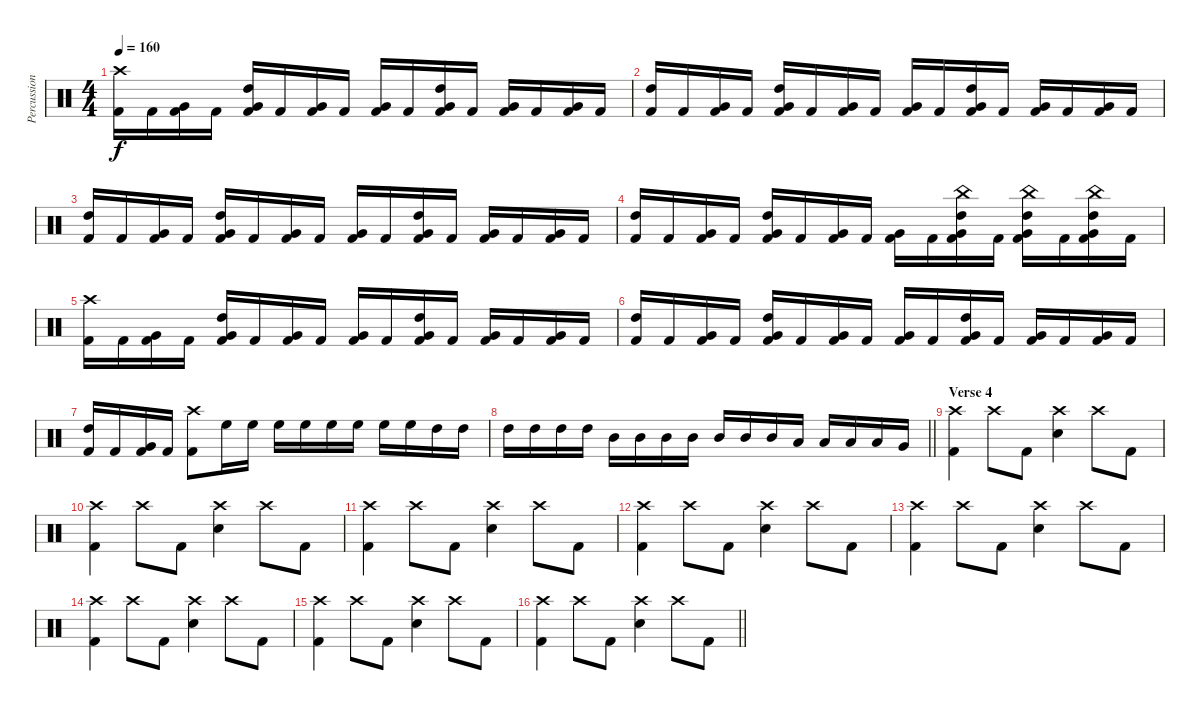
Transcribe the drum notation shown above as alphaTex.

\track ("Percussion" "Percussion") {instrument percussion}
\staff {score}
\articulation defaults
\ts (4 4)
\tempo 160
\clef neutral
\ks c
("Kick (hit) 2" "Crash high (hit)").16{dy f} "Kick (hit) 2".16 ("Kick (hit) 2" "Very Low Tom (hit)").16 "Kick (hit) 2".16 ("Kick (hit) 2" "Very Low Tom (hit)" "High Tom (hit)").16 "Kick (hit) 2".16 ("Kick (hit) 2" "Very Low Tom (hit)").16 "Kick (hit) 2".16 ("Kick (hit) 2" "Very Low Tom (hit)").16 "Kick (hit) 2".16 ("Kick (hit) 2" "Very Low Tom (hit)" "High Tom (hit)").16 "Kick (hit) 2".16 ("Kick (hit) 2" "Very Low Tom (hit)").16 "Kick (hit) 2".16 ("Kick (hit) 2" "Very Low Tom (hit)").16 "Kick (hit) 2".16 |
("Kick (hit) 2" "High Tom (hit)").16 "Kick (hit) 2".16 ("Kick (hit) 2" "Very Low Tom (hit)").16 "Kick (hit) 2".16 ("Kick (hit) 2" "Very Low Tom (hit)" "High Tom (hit)").16 "Kick (hit) 2".16 ("Kick (hit) 2" "Very Low Tom (hit)").16 "Kick (hit) 2".16 ("Kick (hit) 2" "Very Low Tom (hit)").16 "Kick (hit) 2".16 ("Kick (hit) 2" "Very Low Tom (hit)" "High Tom (hit)").16 "Kick (hit) 2".16 ("Kick (hit) 2" "Very Low Tom (hit)").16 "Kick (hit) 2".16 ("Kick (hit) 2" "Very Low Tom (hit)").16 "Kick (hit) 2".16 |
("Kick (hit) 2" "High Tom (hit)").16 "Kick (hit) 2".16 ("Kick (hit) 2" "Very Low Tom (hit)").16 "Kick (hit) 2".16 ("Kick (hit) 2" "Very Low Tom (hit)" "High Tom (hit)").16 "Kick (hit) 2".16 ("Kick (hit) 2" "Very Low Tom (hit)").16 "Kick (hit) 2".16 ("Kick (hit) 2" "Very Low Tom (hit)").16 "Kick (hit) 2".16 ("Kick (hit) 2" "Very Low Tom (hit)" "High Tom (hit)").16 "Kick (hit) 2".16 ("Kick (hit) 2" "Very Low Tom (hit)").16 "Kick (hit) 2".16 ("Kick (hit) 2" "Very Low Tom (hit)").16 "Kick (hit) 2".16 |
("Kick (hit) 2" "High Tom (hit)").16 "Kick (hit) 2".16 ("Kick (hit) 2" "Very Low Tom (hit)").16 "Kick (hit) 2".16 ("Kick (hit) 2" "Very Low Tom (hit)" "High Tom (hit)").16 "Kick (hit) 2".16 ("Kick (hit) 2" "Very Low Tom (hit)").16 "Kick (hit) 2".16 ("Kick (hit) 2" "Very Low Tom (hit)").16 "Kick (hit) 2".16 ("Kick (hit) 2" "Very Low Tom (hit)" "High Tom (hit)" "China (hit)").16 "Kick (hit) 2".16 ("Kick (hit) 2" "Very Low Tom (hit)" "China (hit)" "High Tom (hit)").16 "Kick (hit) 2".16 ("Kick (hit) 2" "Very Low Tom (hit)" "China (hit)" "High Tom (hit)").16 "Kick (hit) 2".16 |
("Kick (hit) 2" "Crash high (hit)").16 "Kick (hit) 2".16 ("Kick (hit) 2" "Very Low Tom (hit)").16 "Kick (hit) 2".16 ("Kick (hit) 2" "Very Low Tom (hit)" "High Tom (hit)").16 "Kick (hit) 2".16 ("Kick (hit) 2" "Very Low Tom (hit)").16 "Kick (hit) 2".16 ("Kick (hit) 2" "Very Low Tom (hit)").16 "Kick (hit) 2".16 ("Kick (hit) 2" "Very Low Tom (hit)" "High Tom (hit)").16 "Kick (hit) 2".16 ("Kick (hit) 2" "Very Low Tom (hit)").16 "Kick (hit) 2".16 ("Kick (hit) 2" "Very Low Tom (hit)").16 "Kick (hit) 2".16 |
("Kick (hit) 2" "High Tom (hit)").16 "Kick (hit) 2".16 ("Kick (hit) 2" "Very Low Tom (hit)").16 "Kick (hit) 2".16 ("Kick (hit) 2" "Very Low Tom (hit)" "High Tom (hit)").16 "Kick (hit) 2".16 ("Kick (hit) 2" "Very Low Tom (hit)").16 "Kick (hit) 2".16 ("Kick (hit) 2" "Very Low Tom (hit)").16 "Kick (hit) 2".16 ("Kick (hit) 2" "Very Low Tom (hit)" "High Tom (hit)").16 "Kick (hit) 2".16 ("Kick (hit) 2" "Very Low Tom (hit)").16 "Kick (hit) 2".16 ("Kick (hit) 2" "Very Low Tom (hit)").16 "Kick (hit) 2".16 |
("Kick (hit) 2" "High Tom (hit)").16 "Kick (hit) 2".16 ("Kick (hit) 2" "Very Low Tom (hit)").16 "Kick (hit) 2".16 ("Kick (hit) 2" "Crash high (hit)").8 "High Floor Tom (hit)".16 "High Floor Tom (hit)".16 "High Floor Tom (hit)".16 "High Floor Tom (hit)".16 "High Floor Tom (hit)".16 "High Floor Tom (hit)".16 "High Floor Tom (hit)".16 "High Floor Tom (hit)".16 "High Tom (hit)".16 "High Tom (hit)".16 |
\barLineRight lightlight "High Tom (hit)".16 "High Tom (hit)".16 "High Tom (hit)".16 "High Tom (hit)".16 "Mid Tom (hit)".16 "Mid Tom (hit)".16 "Mid Tom (hit)".16 "Mid Tom (hit)".16 "Mid Tom (hit)".16 "Mid Tom (hit)".16 "Mid Tom (hit)".16 "Low Tom (hit)".16 "Low Tom (hit)".16 "Low Tom (hit)".16 "Low Tom (hit)".16 "Very Low Tom (hit)".16
|
\section ("" "Verse 4")
("Kick (hit) 2" "Crash high (hit)").4 "Crash high (hit)".8 "Kick (hit) 2".8 ("Snare (hit) 2" "Crash high (hit)").4 "Crash high (hit)".8 "Kick (hit) 2".8 |
("Kick (hit) 2" "Crash high (hit)").4 "Crash high (hit)".8 "Kick (hit) 2".8 ("Snare (hit) 2" "Crash high (hit)").4 "Crash high (hit)".8 "Kick (hit) 2".8 |
("Kick (hit) 2" "Crash high (hit)").4 "Crash high (hit)".8 "Kick (hit) 2".8 ("Snare (hit) 2" "Crash high (hit)").4 "Crash high (hit)".8 "Kick (hit) 2".8 |
("Kick (hit) 2" "Crash high (hit)").4 "Crash high (hit)".8 "Kick (hit) 2".8 ("Snare (hit) 2" "Crash high (hit)").4 "Crash high (hit)".8 "Kick (hit) 2".8 |
("Kick (hit) 2" "Crash high (hit)").4 "Crash high (hit)".8 "Kick (hit) 2".8 ("Snare (hit) 2" "Crash high (hit)").4 "Crash high (hit)".8 "Kick (hit) 2".8 |
("Kick (hit) 2" "Crash high (hit)").4 "Crash high (hit)".8 "Kick (hit) 2".8 ("Snare (hit) 2" "Crash high (hit)").4 "Crash high (hit)".8 "Kick (hit) 2".8 |
("Kick (hit) 2" "Crash high (hit)").4 "Crash high (hit)".8 "Kick (hit) 2".8 ("Snare (hit) 2" "Crash high (hit)").4 "Crash high (hit)".8 "Kick (hit) 2".8 |
\barLineRight lightlight
("Kick (hit) 2" "Crash high (hit)").4 "Crash high (hit)".8 "Kick (hit) 2".8 ("Snare (hit) 2" "Crash high (hit)").4 "Crash high (hit)".8 "Kick (hit) 2".8
